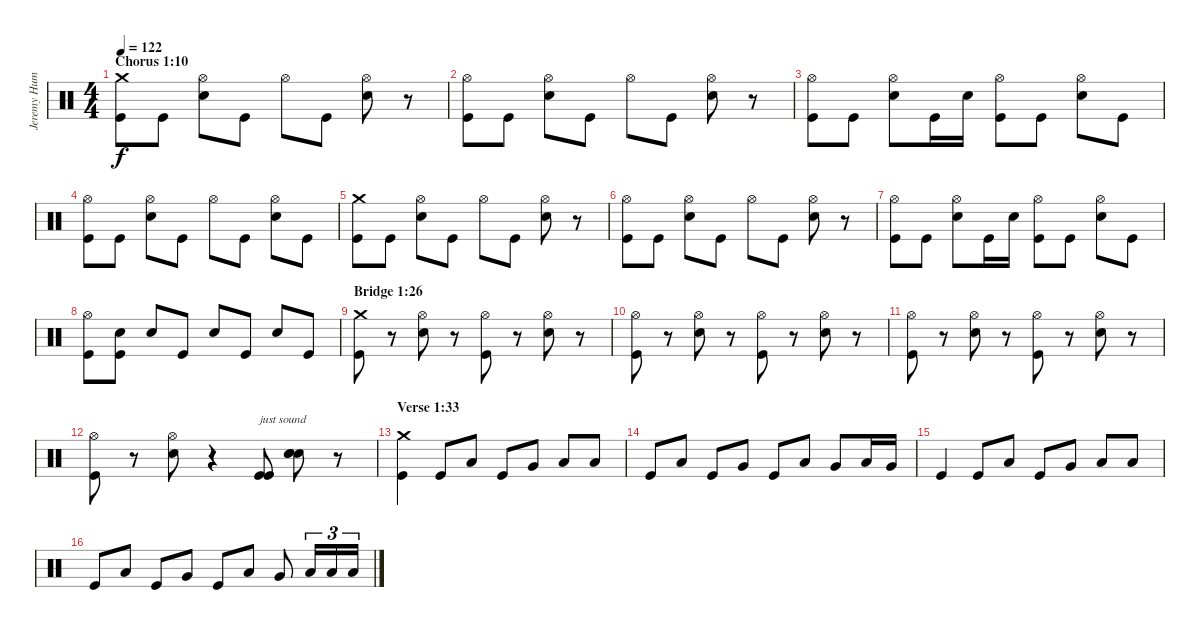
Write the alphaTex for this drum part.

\track ("Jeremy Hummel Drums]" "Jeremy Hum") {instrument percussion}
\staff {score}
\articulation defaults
\ts (4 4)
\section ("" "Chorus 1:10")
\tempo 122
\clef neutral
\ks c
("Crash medium (hit)" "Kick (hit)").8{dy f} "Kick (hit)".8 ("Hi-Hat (open)" "Electric Snare (hit)").8 "Kick (hit)".8 "Hi-Hat (open)".8 "Kick (hit)".8 ("Hi-Hat (open)" "Electric Snare (hit)").8 r.8 |
("Hi-Hat (open)" "Kick (hit)").8 "Kick (hit)".8 ("Hi-Hat (open)" "Electric Snare (hit)").8 "Kick (hit)".8 "Hi-Hat (open)".8 "Kick (hit)".8 ("Hi-Hat (open)" "Electric Snare (hit)").8 r.8 |
("Hi-Hat (open)" "Kick (hit)").8 "Kick (hit)".8 ("Hi-Hat (open)" "Electric Snare (hit)").8 "Kick (hit)".16 "Electric Snare (hit)".16 ("Hi-Hat (open)" "Kick (hit)").8 "Kick (hit)".8 ("Hi-Hat (open)" "Electric Snare (hit)").8 "Kick (hit)".8 |
("Hi-Hat (open)" "Kick (hit)").8 "Kick (hit)".8 ("Hi-Hat (open)" "Electric Snare (hit)").8 "Kick (hit)".8 "Hi-Hat (open)".8 "Kick (hit)".8 ("Hi-Hat (open)" "Electric Snare (hit)").8 "Kick (hit)".8 |
("Crash medium (hit)" "Kick (hit)").8 "Kick (hit)".8 ("Hi-Hat (open)" "Electric Snare (hit)").8 "Kick (hit)".8 "Hi-Hat (open)".8 "Kick (hit)".8 ("Hi-Hat (open)" "Electric Snare (hit)").8 r.8 |
("Hi-Hat (open)" "Kick (hit)").8 "Kick (hit)".8 ("Hi-Hat (open)" "Electric Snare (hit)").8 "Kick (hit)".8 "Hi-Hat (open)".8 "Kick (hit)".8 ("Hi-Hat (open)" "Electric Snare (hit)").8 r.8 |
("Hi-Hat (open)" "Kick (hit)").8 "Kick (hit)".8 ("Hi-Hat (open)" "Electric Snare (hit)").8 "Kick (hit)".16 "Electric Snare (hit)".16 ("Hi-Hat (open)" "Kick (hit)").8 "Kick (hit)".8 ("Hi-Hat (open)" "Electric Snare (hit)").8 "Kick (hit)".8 |
("Hi-Hat (open)" "Kick (hit)").8 ("Electric Snare (hit)" "Kick (hit)").8 "Electric Snare (hit)".8 "Kick (hit)".8 "Electric Snare (hit)".8 "Kick (hit)".8 "Electric Snare (hit)".8 "Kick (hit)".8 |
\section ("" "Bridge 1:26")
("Crash medium (hit)" "Kick (hit)").8 r.8 ("Hi-Hat (open)" "Electric Snare (hit)").8 r.8 ("Hi-Hat (open)" "Kick (hit)").8 r.8 ("Hi-Hat (open)" "Electric Snare (hit)").8 r.8 |
("Hi-Hat (open)" "Kick (hit)").8 r.8 ("Hi-Hat (open)" "Electric Snare (hit)").8 r.8 ("Hi-Hat (open)" "Kick (hit)").8 r.8 ("Hi-Hat (open)" "Electric Snare (hit)").8 r.8 |
("Hi-Hat (open)" "Kick (hit)").8 r.8 ("Hi-Hat (open)" "Electric Snare (hit)").8 r.8 ("Hi-Hat (open)" "Kick (hit)").8 r.8 ("Hi-Hat (open)" "Electric Snare (hit)").8 r.8 |
("Hi-Hat (open)" "Kick (hit)").8 r.8 ("Hi-Hat (open)" "Electric Snare (hit)").8 r.4 ("Kick (hit)" "Kick (hit)").8{txt "just sound"} ("Electric Snare (hit)" "Electric Snare (hit)" "Electric Snare (hit)").8 r.8 |
\section ("" "Verse 1:33")
("Crash medium (hit)" "Kick (hit)").4 "Kick (hit)".8 "Low Tom (hit)".8 "Kick (hit)".8 "Very Low Tom (hit)".8 "Low Floor Tom (hit)".8 "Low Tom (hit)".8 |
"Kick (hit)".8 "Low Tom (hit)".8 "Kick (hit)".8 "Very Low Tom (hit)".8 "Kick (hit)".8 "Low Floor Tom (hit)".8 "Very Low Tom (hit)".8 "Low Tom (hit)".16 "Very Low Tom (hit)".16 |
"Kick (hit)".4 "Kick (hit)".8 "Low Tom (hit)".8 "Kick (hit)".8 "Very Low Tom (hit)".8 "Low Floor Tom (hit)".8 "Low Tom (hit)".8 |
"Kick (hit)".8 "Low Tom (hit)".8 "Kick (hit)".8 "Very Low Tom (hit)".8 "Kick (hit)".8 "Low Floor Tom (hit)".8 "Very Low Tom (hit)".8 "Low Tom (hit)".16{tu (3 2)} "Low Tom (hit)".16{tu (3 2)} "Low Tom (hit)".16{tu (3 2)}
